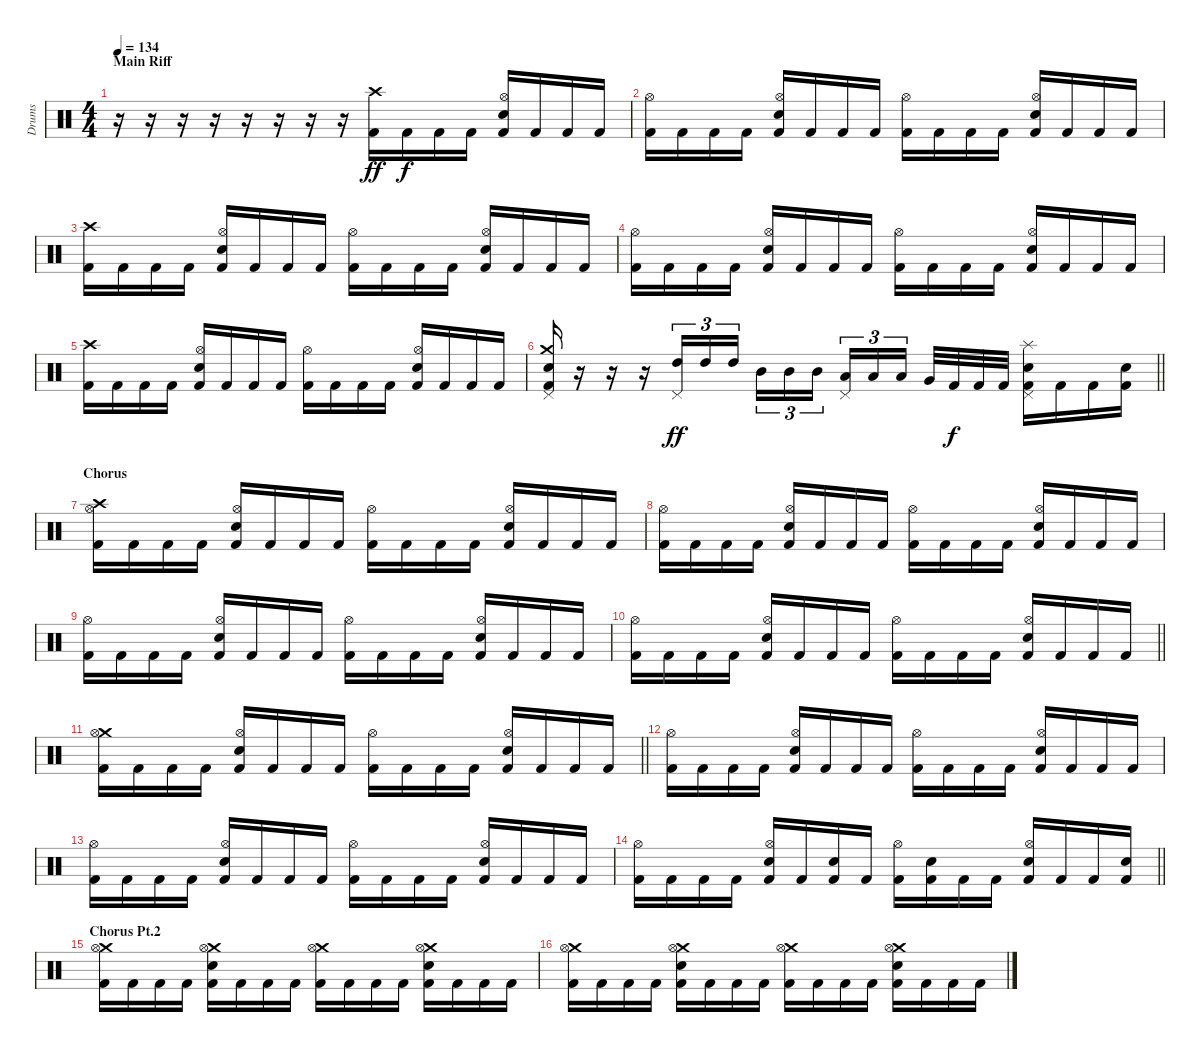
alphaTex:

\track ("Drums" "Drums") {instrument percussion}
\staff {score}
\articulation defaults
\ts (4 4)
\section ("" "Main Riff")
\tempo 134
\clef neutral
\ks c
r.16{dy fff} r.16 r.16 r.16 r.16 r.16 r.16 r.16 ("Crash high (hit)" "Kick (hit) 2").16{dy ff} "Kick (hit) 2".16{dy f} "Kick (hit) 2".16 "Kick (hit) 2".16 ("Hi-Hat (open)" "Snare (hit) 2" "Kick (hit) 2").16 "Kick (hit) 2".16 "Kick (hit) 2".16 "Kick (hit) 2".16 |
("Hi-Hat (open)" "Kick (hit) 2").16 "Kick (hit) 2".16 "Kick (hit) 2".16 "Kick (hit) 2".16 ("Hi-Hat (open)" "Snare (hit) 2" "Kick (hit) 2").16 "Kick (hit) 2".16 "Kick (hit) 2".16 "Kick (hit) 2".16 ("Hi-Hat (open)" "Kick (hit) 2").16 "Kick (hit) 2".16 "Kick (hit) 2".16 "Kick (hit) 2".16 ("Hi-Hat (open)" "Snare (hit) 2" "Kick (hit) 2").16 "Kick (hit) 2".16 "Kick (hit) 2".16 "Kick (hit) 2".16 |
("Crash high (hit)" "Kick (hit) 2").16 "Kick (hit) 2".16 "Kick (hit) 2".16 "Kick (hit) 2".16 ("Hi-Hat (open)" "Snare (hit) 2" "Kick (hit) 2").16 "Kick (hit) 2".16 "Kick (hit) 2".16 "Kick (hit) 2".16 ("Hi-Hat (open)" "Kick (hit) 2").16 "Kick (hit) 2".16 "Kick (hit) 2".16 "Kick (hit) 2".16 ("Hi-Hat (open)" "Snare (hit) 2" "Kick (hit) 2").16 "Kick (hit) 2".16 "Kick (hit) 2".16 "Kick (hit) 2".16 |
("Hi-Hat (open)" "Kick (hit) 2").16 "Kick (hit) 2".16 "Kick (hit) 2".16 "Kick (hit) 2".16 ("Hi-Hat (open)" "Snare (hit) 2" "Kick (hit) 2").16 "Kick (hit) 2".16 "Kick (hit) 2".16 "Kick (hit) 2".16 ("Hi-Hat (open)" "Kick (hit) 2").16 "Kick (hit) 2".16 "Kick (hit) 2".16 "Kick (hit) 2".16 ("Hi-Hat (open)" "Snare (hit) 2" "Kick (hit) 2").16 "Kick (hit) 2".16 "Kick (hit) 2".16 "Kick (hit) 2".16 |
("Crash high (hit)" "Kick (hit) 2").16 "Kick (hit) 2".16 "Kick (hit) 2".16 "Kick (hit) 2".16 ("Hi-Hat (open)" "Snare (hit) 2" "Kick (hit) 2").16 "Kick (hit) 2".16 "Kick (hit) 2".16 "Kick (hit) 2".16 ("Hi-Hat (open)" "Kick (hit) 2").16 "Kick (hit) 2".16 "Kick (hit) 2".16 "Kick (hit) 2".16 ("Hi-Hat (open)" "Snare (hit) 2" "Kick (hit) 2").16 "Kick (hit) 2".16 "Kick (hit) 2".16 "Kick (hit) 2".16 |
\barLineRight lightlight
("Crash medium (hit)" "Pedal Hi-Hat (hit)" "Snare (hit) 2" "Kick (hit) 2").16 r.16 r.16 r.16 ("High Tom (hit)" "Pedal Hi-Hat (hit)").16{tu (3 2) dy ff} "High Tom (hit)".16{tu (3 2)} "High Tom (hit)".16{tu (3 2)} "Mid Tom (hit)".16{tu (3 2)} "Mid Tom (hit)".16{tu (3 2)} "Mid Tom (hit)".16{tu (3 2)} ("Low Tom (hit)" "Pedal Hi-Hat (hit)").16{tu (3 2)} "Low Tom (hit)".16{tu (3 2)} "Low Tom (hit)".16{tu (3 2)} "Very Low Tom (hit)".32 "Kick (hit) 2".32{dy f} "Kick (hit) 2".32 "Kick (hit) 2".32 ("Splash (hit)" "Pedal Hi-Hat (hit)" "Snare (hit) 2" "Kick (hit) 2").16 "Kick (hit) 2".16 "Kick (hit) 2".16 ("Snare (hit) 2" "Kick (hit) 2").16 |
\section ("" "Chorus")
("Crash high (hit)" "Hi-Hat (open)" "Kick (hit) 2").16 "Kick (hit) 2".16 "Kick (hit) 2".16 "Kick (hit) 2".16 ("Hi-Hat (open)" "Snare (hit) 2" "Kick (hit) 2").16 "Kick (hit) 2".16 "Kick (hit) 2".16 "Kick (hit) 2".16 ("Hi-Hat (open)" "Kick (hit) 2").16 "Kick (hit) 2".16 "Kick (hit) 2".16 "Kick (hit) 2".16 ("Hi-Hat (open)" "Snare (hit) 2" "Kick (hit) 2").16 "Kick (hit) 2".16 "Kick (hit) 2".16 "Kick (hit) 2".16 |
("Hi-Hat (open)" "Kick (hit) 2").16 "Kick (hit) 2".16 "Kick (hit) 2".16 "Kick (hit) 2".16 ("Hi-Hat (open)" "Snare (hit) 2" "Kick (hit) 2").16 "Kick (hit) 2".16 "Kick (hit) 2".16 "Kick (hit) 2".16 ("Hi-Hat (open)" "Kick (hit) 2").16 "Kick (hit) 2".16 "Kick (hit) 2".16 "Kick (hit) 2".16 ("Hi-Hat (open)" "Snare (hit) 2" "Kick (hit) 2").16 "Kick (hit) 2".16 "Kick (hit) 2".16 "Kick (hit) 2".16 |
("Hi-Hat (open)" "Kick (hit) 2").16 "Kick (hit) 2".16 "Kick (hit) 2".16 "Kick (hit) 2".16 ("Hi-Hat (open)" "Snare (hit) 2" "Kick (hit) 2").16 "Kick (hit) 2".16 "Kick (hit) 2".16 "Kick (hit) 2".16 ("Hi-Hat (open)" "Kick (hit) 2").16 "Kick (hit) 2".16 "Kick (hit) 2".16 "Kick (hit) 2".16 ("Hi-Hat (open)" "Snare (hit) 2" "Kick (hit) 2").16 "Kick (hit) 2".16 "Kick (hit) 2".16 "Kick (hit) 2".16 |
\barLineRight lightlight
("Hi-Hat (open)" "Kick (hit) 2").16 "Kick (hit) 2".16 "Kick (hit) 2".16 "Kick (hit) 2".16 ("Hi-Hat (open)" "Snare (hit) 2" "Kick (hit) 2").16 "Kick (hit) 2".16 "Kick (hit) 2".16 "Kick (hit) 2".16 ("Hi-Hat (open)" "Kick (hit) 2").16 "Kick (hit) 2".16 "Kick (hit) 2".16 "Kick (hit) 2".16 ("Hi-Hat (open)" "Snare (hit) 2" "Kick (hit) 2").16 "Kick (hit) 2".16 "Kick (hit) 2".16 "Kick (hit) 2".16 |
\section ("" "")
\barLineRight lightlight
("Crash medium (hit)" "Hi-Hat (open)" "Kick (hit) 2").16 "Kick (hit) 2".16 "Kick (hit) 2".16 "Kick (hit) 2".16 ("Hi-Hat (open)" "Snare (hit) 2" "Kick (hit) 2").16 "Kick (hit) 2".16 "Kick (hit) 2".16 "Kick (hit) 2".16 ("Hi-Hat (open)" "Kick (hit) 2").16 "Kick (hit) 2".16 "Kick (hit) 2".16 "Kick (hit) 2".16 ("Hi-Hat (open)" "Snare (hit) 2" "Kick (hit) 2").16 "Kick (hit) 2".16 "Kick (hit) 2".16 "Kick (hit) 2".16 |
("Hi-Hat (open)" "Kick (hit) 2").16 "Kick (hit) 2".16 "Kick (hit) 2".16 "Kick (hit) 2".16 ("Hi-Hat (open)" "Snare (hit) 2" "Kick (hit) 2").16 "Kick (hit) 2".16 "Kick (hit) 2".16 "Kick (hit) 2".16 ("Hi-Hat (open)" "Kick (hit) 2").16 "Kick (hit) 2".16 "Kick (hit) 2".16 "Kick (hit) 2".16 ("Hi-Hat (open)" "Snare (hit) 2" "Kick (hit) 2").16 "Kick (hit) 2".16 "Kick (hit) 2".16 "Kick (hit) 2".16 |
("Hi-Hat (open)" "Kick (hit) 2").16 "Kick (hit) 2".16 "Kick (hit) 2".16 "Kick (hit) 2".16 ("Hi-Hat (open)" "Snare (hit) 2" "Kick (hit) 2").16 "Kick (hit) 2".16 "Kick (hit) 2".16 "Kick (hit) 2".16 ("Hi-Hat (open)" "Kick (hit) 2").16 "Kick (hit) 2".16 "Kick (hit) 2".16 "Kick (hit) 2".16 ("Hi-Hat (open)" "Snare (hit) 2" "Kick (hit) 2").16 "Kick (hit) 2".16 "Kick (hit) 2".16 "Kick (hit) 2".16 |
\barLineRight lightlight
("Hi-Hat (open)" "Kick (hit) 2").16 "Kick (hit) 2".16 "Kick (hit) 2".16 "Kick (hit) 2".16 ("Hi-Hat (open)" "Snare (hit) 2" "Kick (hit) 2").16 "Kick (hit) 2".16 ("Snare (hit) 2" "Kick (hit) 2").16 "Kick (hit) 2".16 ("Hi-Hat (open)" "Kick (hit) 2").16 ("Snare (hit) 2" "Kick (hit) 2").16 "Kick (hit) 2".16 "Kick (hit) 2".16 ("Hi-Hat (open)" "Snare (hit) 2" "Kick (hit) 2").16 "Kick (hit) 2".16 "Kick (hit) 2".16 ("Snare (hit) 2" "Kick (hit) 2").16 |
\section ("" "Chorus Pt.2")
("Crash medium (hit)" "Hi-Hat (open)" "Kick (hit) 2").16 "Kick (hit) 2".16 "Kick (hit) 2".16 "Kick (hit) 2".16 ("Crash medium (hit)" "Hi-Hat (open)" "Snare (hit) 2" "Kick (hit) 2").16 "Kick (hit) 2".16 "Kick (hit) 2".16 "Kick (hit) 2".16 ("Crash medium (hit)" "Hi-Hat (open)" "Kick (hit) 2").16 "Kick (hit) 2".16 "Kick (hit) 2".16 "Kick (hit) 2".16 ("Crash medium (hit)" "Hi-Hat (open)" "Snare (hit) 2" "Kick (hit) 2").16 "Kick (hit) 2".16 "Kick (hit) 2".16 "Kick (hit) 2".16 |
("Crash medium (hit)" "Hi-Hat (open)" "Kick (hit) 2").16 "Kick (hit) 2".16 "Kick (hit) 2".16 "Kick (hit) 2".16 ("Crash medium (hit)" "Hi-Hat (open)" "Snare (hit) 2" "Kick (hit) 2").16 "Kick (hit) 2".16 "Kick (hit) 2".16 "Kick (hit) 2".16 ("Crash medium (hit)" "Hi-Hat (open)" "Kick (hit) 2").16 "Kick (hit) 2".16 "Kick (hit) 2".16 "Kick (hit) 2".16 ("Crash medium (hit)" "Hi-Hat (open)" "Snare (hit) 2" "Kick (hit) 2").16 "Kick (hit) 2".16 "Kick (hit) 2".16 "Kick (hit) 2".16
